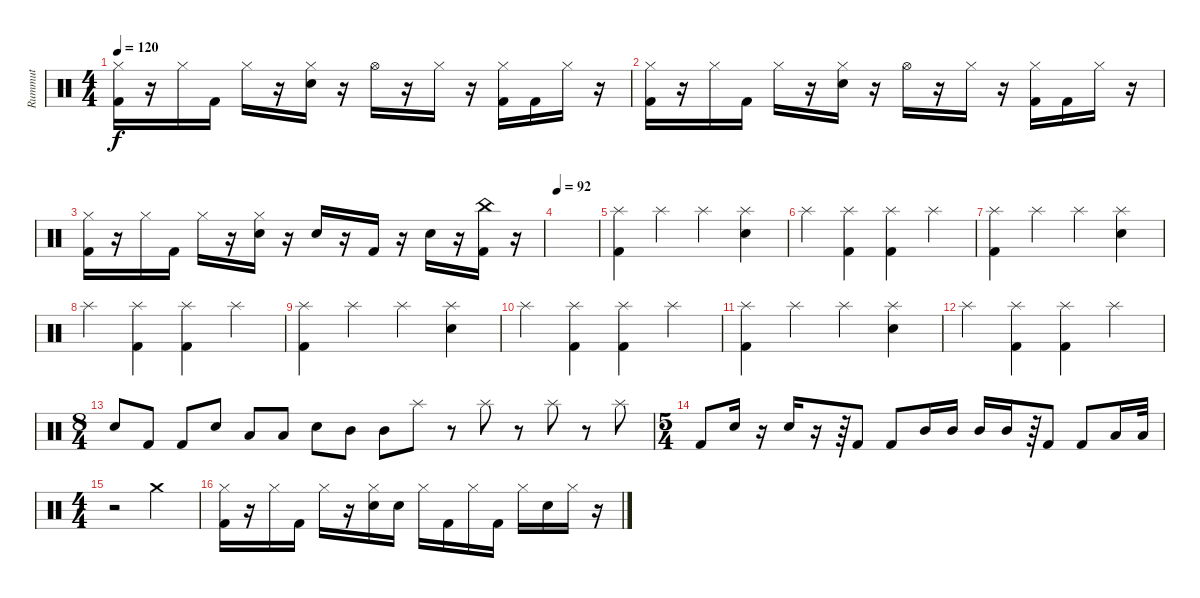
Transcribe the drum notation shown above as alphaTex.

\track ("Rummut" "Rummut") {instrument percussion}
\staff {score}
\articulation defaults
\ts (4 4)
\tempo 120
\clef neutral
\ks c
("Hi-Hat (closed)" "Kick (hit) 2").16{dy f} r.16 "Hi-Hat (closed)".16 "Kick (hit) 2".16 "Hi-Hat (closed)".16 r.16 ("Hi-Hat (closed)" "Snare (hit) 2").16 r.16 "Hi-Hat (open)".16 r.16 "Hi-Hat (closed)".16 r.16 ("Hi-Hat (closed)" "Kick (hit) 2").16 "Kick (hit) 2".16 "Hi-Hat (closed)".16 r.16 |
("Hi-Hat (closed)" "Kick (hit) 2").16 r.16 "Hi-Hat (closed)".16 "Kick (hit) 2".16 "Hi-Hat (closed)".16 r.16 ("Hi-Hat (closed)" "Snare (hit) 2").16 r.16 "Hi-Hat (open)".16 r.16 "Hi-Hat (closed)".16 r.16 ("Hi-Hat (closed)" "Kick (hit) 2").16 "Kick (hit) 2".16 "Hi-Hat (closed)".16 r.16 |
("Hi-Hat (closed)" "Kick (hit) 2").16 r.16 "Hi-Hat (closed)".16 "Kick (hit) 2".16 "Hi-Hat (closed)".16 r.16 ("Hi-Hat (closed)" "Snare (hit) 2").16 r.16 "Snare (hit) 2".16 r.16 "Kick (hit) 2".16 r.16 "Snare (hit) 2".16 r.16 ("China (hit)" "Kick (hit) 2").16 r.16 |
\tempo 92
|
("Splash (hit)" "Kick (hit) 2").4{volume 13} "Splash (hit)".4 "Splash (hit)".4 ("Splash (hit)" "Snare (hit) 2").4 |
"Splash (hit)".4 ("Splash (hit)" "Kick (hit) 2").4 ("Splash (hit)" "Kick (hit) 2").4 "Splash (hit)".4 |
("Splash (hit)" "Kick (hit) 2").4 "Splash (hit)".4 "Splash (hit)".4 ("Splash (hit)" "Snare (hit) 2").4 |
"Splash (hit)".4 ("Splash (hit)" "Kick (hit) 2").4 ("Splash (hit)" "Kick (hit) 2").4 "Splash (hit)".4 |
("Splash (hit)" "Kick (hit) 2").4 "Splash (hit)".4 "Splash (hit)".4 ("Splash (hit)" "Snare (hit) 2").4 |
"Splash (hit)".4 ("Splash (hit)" "Kick (hit) 2").4 ("Splash (hit)" "Kick (hit) 2").4 "Splash (hit)".4 |
("Splash (hit)" "Kick (hit) 2").4 "Splash (hit)".4 "Splash (hit)".4 ("Splash (hit)" "Snare (hit) 2").4 |
"Splash (hit)".4 ("Splash (hit)" "Kick (hit) 2").4 ("Splash (hit)" "Kick (hit) 2").4 "Splash (hit)".4 |
\ts (8 4)
"Snare (hit) 2".8 "Kick (hit) 2".8 "Kick (hit) 2".8 "Snare (hit) 2".8 "Low Tom (hit)".8 "Low Tom (hit)".8 "Snare (hit) 2".8 "Mid Tom (hit)".8 "Mid Tom (hit)".8 "Splash (hit)".8 r.8 "Splash (hit)".8 r.8 "Splash (hit)".8 r.8 "Splash (hit)".8 |
\ts (5 4)
"Kick (hit) 2".8 "Snare (hit) 2".16 r.16 "Snare (hit) 2".16 r.16 r.64 "Kick (hit) 2".8 "Kick (hit) 2".8 "Mid Tom (hit)".16 "Mid Tom (hit)".16 "Mid Tom (hit)".16 "Mid Tom (hit)".16 r.64 "Kick (hit) 2".8 "Kick (hit) 2".8 "Low Tom (hit)".16 "Low Tom (hit)".32 |
\ts (4 4)
r.2 "Crash medium (hit)".2 |
("Hi-Hat (closed)" "Kick (hit) 2").16 r.16 "Hi-Hat (closed)".16 "Kick (hit) 2".16 "Hi-Hat (closed)".16 r.16 ("Hi-Hat (closed)" "Snare (hit) 2").16 "Snare (hit) 2".16 "Hi-Hat (closed)".16 "Kick (hit) 2".16 "Hi-Hat (closed)".16 "Kick (hit) 2".16 "Hi-Hat (closed)".16 "Snare (hit) 2".16 "Hi-Hat (closed)".16 r.16
